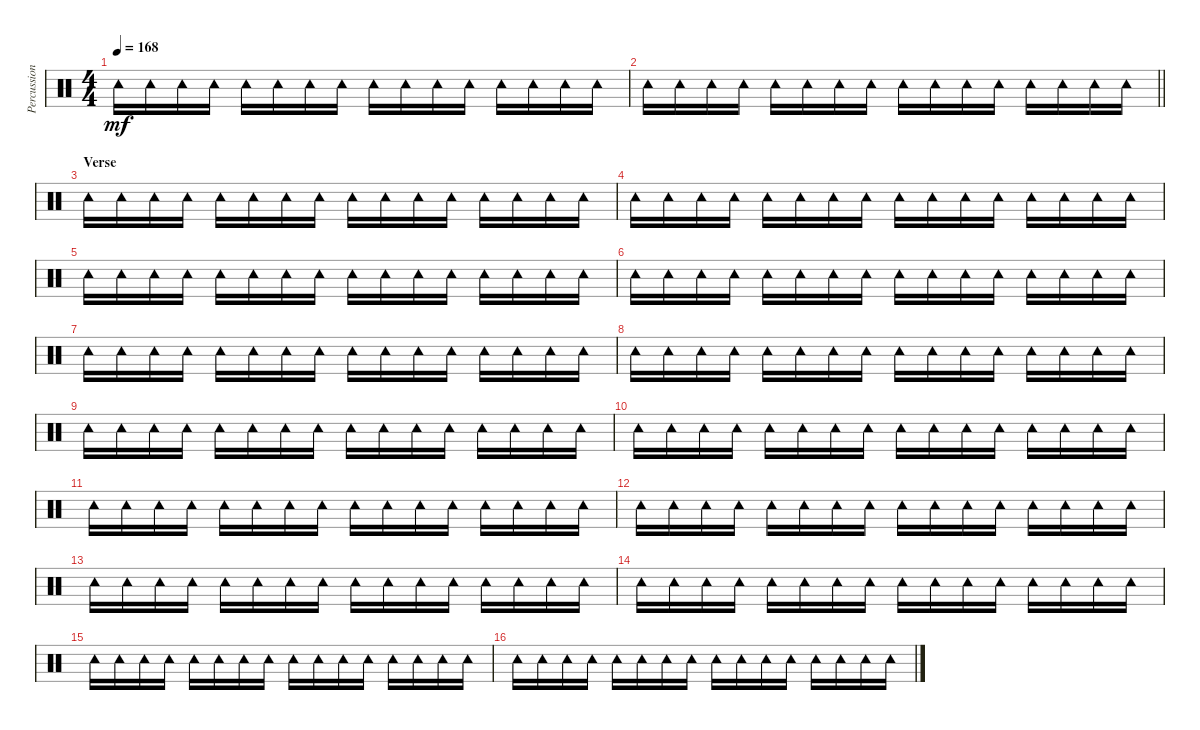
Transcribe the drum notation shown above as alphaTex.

\track ("Percussion" "Percussion") {instrument percussion}
\staff {score}
\articulation defaults
\ts (4 4)
\tempo 168
\clef neutral
\ks c "Tambourine (hit)".16{dy mf} "Tambourine (hit)".16 "Tambourine (hit)".16 "Tambourine (hit)".16 "Tambourine (hit)".16 "Tambourine (hit)".16 "Tambourine (hit)".16 "Tambourine (hit)".16 "Tambourine (hit)".16 "Tambourine (hit)".16 "Tambourine (hit)".16 "Tambourine (hit)".16 "Tambourine (hit)".16 "Tambourine (hit)".16 "Tambourine (hit)".16 "Tambourine (hit)".16
|
\barLineRight lightlight "Tambourine (hit)".16 "Tambourine (hit)".16 "Tambourine (hit)".16 "Tambourine (hit)".16 "Tambourine (hit)".16 "Tambourine (hit)".16 "Tambourine (hit)".16 "Tambourine (hit)".16 "Tambourine (hit)".16 "Tambourine (hit)".16 "Tambourine (hit)".16 "Tambourine (hit)".16 "Tambourine (hit)".16 "Tambourine (hit)".16 "Tambourine (hit)".16 "Tambourine (hit)".16
|
\section ("" "Verse")
"Tambourine (hit)".16 "Tambourine (hit)".16 "Tambourine (hit)".16 "Tambourine (hit)".16 "Tambourine (hit)".16 "Tambourine (hit)".16 "Tambourine (hit)".16 "Tambourine (hit)".16 "Tambourine (hit)".16 "Tambourine (hit)".16 "Tambourine (hit)".16 "Tambourine (hit)".16 "Tambourine (hit)".16 "Tambourine (hit)".16 "Tambourine (hit)".16 "Tambourine (hit)".16 |
"Tambourine (hit)".16 "Tambourine (hit)".16 "Tambourine (hit)".16 "Tambourine (hit)".16 "Tambourine (hit)".16 "Tambourine (hit)".16 "Tambourine (hit)".16 "Tambourine (hit)".16 "Tambourine (hit)".16 "Tambourine (hit)".16 "Tambourine (hit)".16 "Tambourine (hit)".16 "Tambourine (hit)".16 "Tambourine (hit)".16 "Tambourine (hit)".16 "Tambourine (hit)".16 |
"Tambourine (hit)".16 "Tambourine (hit)".16 "Tambourine (hit)".16 "Tambourine (hit)".16 "Tambourine (hit)".16 "Tambourine (hit)".16 "Tambourine (hit)".16 "Tambourine (hit)".16 "Tambourine (hit)".16 "Tambourine (hit)".16 "Tambourine (hit)".16 "Tambourine (hit)".16 "Tambourine (hit)".16 "Tambourine (hit)".16 "Tambourine (hit)".16 "Tambourine (hit)".16 |
"Tambourine (hit)".16 "Tambourine (hit)".16 "Tambourine (hit)".16 "Tambourine (hit)".16 "Tambourine (hit)".16 "Tambourine (hit)".16 "Tambourine (hit)".16 "Tambourine (hit)".16 "Tambourine (hit)".16 "Tambourine (hit)".16 "Tambourine (hit)".16 "Tambourine (hit)".16 "Tambourine (hit)".16 "Tambourine (hit)".16 "Tambourine (hit)".16 "Tambourine (hit)".16 |
"Tambourine (hit)".16 "Tambourine (hit)".16 "Tambourine (hit)".16 "Tambourine (hit)".16 "Tambourine (hit)".16 "Tambourine (hit)".16 "Tambourine (hit)".16 "Tambourine (hit)".16 "Tambourine (hit)".16 "Tambourine (hit)".16 "Tambourine (hit)".16 "Tambourine (hit)".16 "Tambourine (hit)".16 "Tambourine (hit)".16 "Tambourine (hit)".16 "Tambourine (hit)".16 |
"Tambourine (hit)".16 "Tambourine (hit)".16 "Tambourine (hit)".16 "Tambourine (hit)".16 "Tambourine (hit)".16 "Tambourine (hit)".16 "Tambourine (hit)".16 "Tambourine (hit)".16 "Tambourine (hit)".16 "Tambourine (hit)".16 "Tambourine (hit)".16 "Tambourine (hit)".16 "Tambourine (hit)".16 "Tambourine (hit)".16 "Tambourine (hit)".16 "Tambourine (hit)".16 |
"Tambourine (hit)".16 "Tambourine (hit)".16 "Tambourine (hit)".16 "Tambourine (hit)".16 "Tambourine (hit)".16 "Tambourine (hit)".16 "Tambourine (hit)".16 "Tambourine (hit)".16 "Tambourine (hit)".16 "Tambourine (hit)".16 "Tambourine (hit)".16 "Tambourine (hit)".16 "Tambourine (hit)".16 "Tambourine (hit)".16 "Tambourine (hit)".16 "Tambourine (hit)".16 |
"Tambourine (hit)".16 "Tambourine (hit)".16 "Tambourine (hit)".16 "Tambourine (hit)".16 "Tambourine (hit)".16 "Tambourine (hit)".16 "Tambourine (hit)".16 "Tambourine (hit)".16 "Tambourine (hit)".16 "Tambourine (hit)".16 "Tambourine (hit)".16 "Tambourine (hit)".16 "Tambourine (hit)".16 "Tambourine (hit)".16 "Tambourine (hit)".16 "Tambourine (hit)".16 |
"Tambourine (hit)".16 "Tambourine (hit)".16 "Tambourine (hit)".16 "Tambourine (hit)".16 "Tambourine (hit)".16 "Tambourine (hit)".16 "Tambourine (hit)".16 "Tambourine (hit)".16 "Tambourine (hit)".16 "Tambourine (hit)".16 "Tambourine (hit)".16 "Tambourine (hit)".16 "Tambourine (hit)".16 "Tambourine (hit)".16 "Tambourine (hit)".16 "Tambourine (hit)".16 |
"Tambourine (hit)".16 "Tambourine (hit)".16 "Tambourine (hit)".16 "Tambourine (hit)".16 "Tambourine (hit)".16 "Tambourine (hit)".16 "Tambourine (hit)".16 "Tambourine (hit)".16 "Tambourine (hit)".16 "Tambourine (hit)".16 "Tambourine (hit)".16 "Tambourine (hit)".16 "Tambourine (hit)".16 "Tambourine (hit)".16 "Tambourine (hit)".16 "Tambourine (hit)".16 |
"Tambourine (hit)".16 "Tambourine (hit)".16 "Tambourine (hit)".16 "Tambourine (hit)".16 "Tambourine (hit)".16 "Tambourine (hit)".16 "Tambourine (hit)".16 "Tambourine (hit)".16 "Tambourine (hit)".16 "Tambourine (hit)".16 "Tambourine (hit)".16 "Tambourine (hit)".16 "Tambourine (hit)".16 "Tambourine (hit)".16 "Tambourine (hit)".16 "Tambourine (hit)".16 |
"Tambourine (hit)".16 "Tambourine (hit)".16 "Tambourine (hit)".16 "Tambourine (hit)".16 "Tambourine (hit)".16 "Tambourine (hit)".16 "Tambourine (hit)".16 "Tambourine (hit)".16 "Tambourine (hit)".16 "Tambourine (hit)".16 "Tambourine (hit)".16 "Tambourine (hit)".16 "Tambourine (hit)".16 "Tambourine (hit)".16 "Tambourine (hit)".16 "Tambourine (hit)".16 |
"Tambourine (hit)".16 "Tambourine (hit)".16 "Tambourine (hit)".16 "Tambourine (hit)".16 "Tambourine (hit)".16 "Tambourine (hit)".16 "Tambourine (hit)".16 "Tambourine (hit)".16 "Tambourine (hit)".16 "Tambourine (hit)".16 "Tambourine (hit)".16 "Tambourine (hit)".16 "Tambourine (hit)".16 "Tambourine (hit)".16 "Tambourine (hit)".16 "Tambourine (hit)".16 |
"Tambourine (hit)".16 "Tambourine (hit)".16 "Tambourine (hit)".16 "Tambourine (hit)".16 "Tambourine (hit)".16 "Tambourine (hit)".16 "Tambourine (hit)".16 "Tambourine (hit)".16 "Tambourine (hit)".16 "Tambourine (hit)".16 "Tambourine (hit)".16 "Tambourine (hit)".16 "Tambourine (hit)".16 "Tambourine (hit)".16 "Tambourine (hit)".16 "Tambourine (hit)".16
